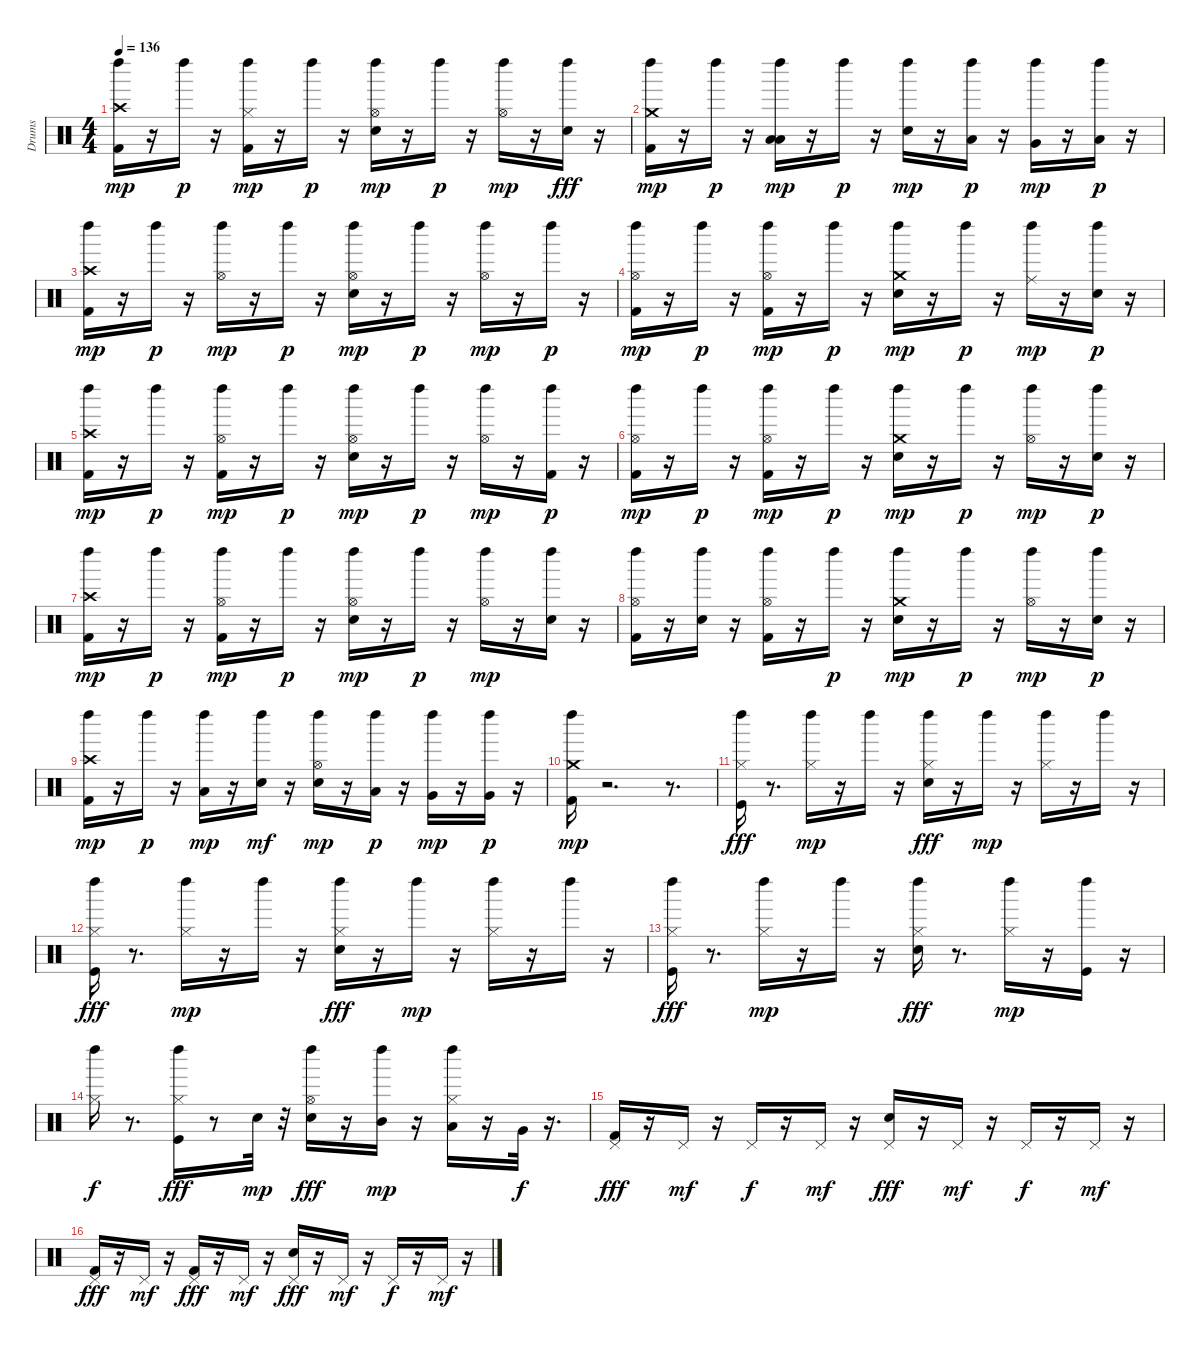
\track ("Drums" "Drums") {instrument percussion}
\staff {score}
\articulation defaults
\ts (4 4)
\tempo 136
\clef neutral
\ks c
("Kick (hit) 2" "Crash high (hit)" "Left Maraca (hit)").16{dy mp} r.16 "Left Maraca (hit)".16{dy p} r.16 ("Left Maraca (hit)" "Kick (hit) 2" "Hi-Hat (closed)").16{dy mp} r.16 "Left Maraca (hit)".16{dy p} r.16 ("Electric Snare (hit)" "Left Maraca (hit)" "Hi-Hat (open)").16{dy mp} r.16 "Left Maraca (hit)".16{dy p} r.16 ("Left Maraca (hit)" "Hi-Hat (open)").16{dy mp} r.16 ("Left Maraca (hit)" "Electric Snare (hit)").16{dy fff} r.16 |
("Kick (hit) 2" "Left Maraca (hit)" "Crash medium (hit)").16{dy mp} r.16 "Left Maraca (hit)".16{dy p} r.16 ("Left Maraca (hit)" "Low Tom (hit)" "Low Floor Tom (hit)").16{dy mp} r.16 "Left Maraca (hit)".16{dy p} r.16 ("Electric Snare (hit)" "Left Maraca (hit)").16{dy mp} r.16 ("Left Maraca (hit)" "Low Tom (hit)").16{dy p} r.16 ("Left Maraca (hit)" "Very Low Tom (hit)").16{dy mp} r.16 ("Left Maraca (hit)" "Low Floor Tom (hit)").16{dy p} r.16 |
("Kick (hit) 2" "Crash high (hit)" "Left Maraca (hit)").16{dy mp} r.16 "Left Maraca (hit)".16{dy p} r.16 ("Left Maraca (hit)" "Hi-Hat (open)").16{dy mp} r.16 "Left Maraca (hit)".16{dy p} r.16 ("Electric Snare (hit)" "Left Maraca (hit)" "Hi-Hat (open)").16{dy mp} r.16 "Left Maraca (hit)".16{dy p} r.16 ("Left Maraca (hit)" "Hi-Hat (open)").16{dy mp} r.16 "Left Maraca (hit)".16{dy p} r.16 |
("Kick (hit) 2" "Left Maraca (hit)" "Hi-Hat (open)").16{dy mp} r.16 "Left Maraca (hit)".16{dy p} r.16 ("Kick (hit) 2" "Left Maraca (hit)" "Hi-Hat (open)").16{dy mp} r.16 "Left Maraca (hit)".16{dy p} r.16 ("Electric Snare (hit)" "Crash medium (hit)" "Left Maraca (hit)").16{dy mp} r.16 "Left Maraca (hit)".16{dy p} r.16 ("Ride (middle)" "Left Maraca (hit)").16{dy mp} r.16 ("Electric Snare (hit)" "Left Maraca (hit)").16{dy p} r.16 |
("Kick (hit) 2" "Crash high (hit)" "Left Maraca (hit)").16{dy mp} r.16 "Left Maraca (hit)".16{dy p} r.16 ("Kick (hit) 2" "Left Maraca (hit)" "Hi-Hat (open)").16{dy mp} r.16 "Left Maraca (hit)".16{dy p} r.16 ("Electric Snare (hit)" "Left Maraca (hit)" "Hi-Hat (open)").16{dy mp} r.16 "Left Maraca (hit)".16{dy p} r.16 ("Left Maraca (hit)" "Hi-Hat (open)").16{dy mp} r.16 ("Kick (hit) 2" "Left Maraca (hit)").16{dy p} r.16 |
("Kick (hit) 2" "Left Maraca (hit)" "Hi-Hat (open)").16{dy mp} r.16 "Left Maraca (hit)".16{dy p} r.16 ("Kick (hit) 2" "Left Maraca (hit)" "Hi-Hat (open)").16{dy mp} r.16 "Left Maraca (hit)".16{dy p} r.16 ("Electric Snare (hit)" "Crash medium (hit)" "Left Maraca (hit)").16{dy mp} r.16 "Left Maraca (hit)".16{dy p} r.16 ("Left Maraca (hit)" "Hi-Hat (open)").16{dy mp} r.16 ("Electric Snare (hit)" "Left Maraca (hit)").16{dy p} r.16 |
("Kick (hit) 2" "Crash high (hit)" "Left Maraca (hit)").16{dy mp} r.16 "Left Maraca (hit)".16{dy p} r.16 ("Left Maraca (hit)" "Kick (hit) 2" "Hi-Hat (open)").16{dy mp} r.16 "Left Maraca (hit)".16{dy p} r.16 ("Electric Snare (hit)" "Left Maraca (hit)" "Hi-Hat (open)").16{dy mp} r.16 "Left Maraca (hit)".16{dy p} r.16 ("Left Maraca (hit)" "Hi-Hat (open)").16{dy mp} r.16 ("Left Maraca (hit)" "Electric Snare (hit)").16 r.16 |
("Kick (hit) 2" "Left Maraca (hit)" "Hi-Hat (open)").16 r.16 ("Left Maraca (hit)" "Electric Snare (hit)").16 r.16 ("Kick (hit) 2" "Left Maraca (hit)" "Hi-Hat (open)").16 r.16 "Left Maraca (hit)".16{dy p} r.16 ("Electric Snare (hit)" "Crash medium (hit)" "Left Maraca (hit)").16{dy mp} r.16 "Left Maraca (hit)".16{dy p} r.16 ("Left Maraca (hit)" "Hi-Hat (open)").16{dy mp} r.16 ("Electric Snare (hit)" "Left Maraca (hit)").16{dy p} r.16 |
("Kick (hit) 2" "Crash high (hit)" "Left Maraca (hit)").16{dy mp} r.16 "Left Maraca (hit)".16{dy p} r.16 ("Left Maraca (hit)" "Low Tom (hit)").16{dy mp} r.16 ("Left Maraca (hit)" "Electric Snare (hit)").16{dy mf} r.16 ("Electric Snare (hit)" "Left Maraca (hit)" "Hi-Hat (open)").16{dy mp} r.16 ("Left Maraca (hit)" "Low Tom (hit)").16{dy p} r.16 ("Left Maraca (hit)" "Very Low Tom (hit)").16{dy mp} r.16 ("Left Maraca (hit)" "Very Low Tom (hit)").16{dy p} r.16 |
("Kick (hit) 2" "Left Maraca (hit)" "Crash medium (hit)").16{dy mp} r.2{d} r.8{d} |
("Kick (hit)" "Hi-Hat (closed)" "Left Maraca (hit)").16{dy fff volume 14} r.8{d} ("Hi-Hat (closed)" "Left Maraca (hit)").16{dy mp} r.16 "Left Maraca (hit)".16 r.16 ("Snare (hit) 2" "Hi-Hat (closed)" "Left Maraca (hit)").16{dy fff} r.16 "Left Maraca (hit)".16{dy mp} r.16 ("Hi-Hat (closed)" "Left Maraca (hit)").16 r.16 "Left Maraca (hit)".16 r.16 |
("Kick (hit)" "Hi-Hat (closed)" "Left Maraca (hit)").16{dy fff} r.8{d} ("Hi-Hat (closed)" "Left Maraca (hit)").16{dy mp} r.16 "Left Maraca (hit)".16 r.16 ("Snare (hit) 2" "Hi-Hat (closed)" "Left Maraca (hit)").16{dy fff} r.16 "Left Maraca (hit)".16{dy mp} r.16 ("Hi-Hat (closed)" "Left Maraca (hit)").16 r.16 "Left Maraca (hit)".16 r.16 |
("Kick (hit)" "Hi-Hat (closed)" "Left Maraca (hit)").16{dy fff} r.8{d} ("Hi-Hat (closed)" "Left Maraca (hit)").16{dy mp} r.16 "Left Maraca (hit)".16 r.16 ("Snare (hit) 2" "Hi-Hat (closed)" "Left Maraca (hit)").16{dy fff} r.8{d} ("Hi-Hat (closed)" "Left Maraca (hit)").16{dy mp} r.16 ("Kick (hit)" "Left Maraca (hit)").16 r.16 |
("Hi-Hat (closed)" "Left Maraca (hit)").16{dy f} r.8{d} ("Hi-Hat (closed)" "Kick (hit)" "Left Maraca (hit)").16{dy fff} r.8 "Electric Snare (hit)".32{dy mp volume 15} r.32 ("Left Maraca (hit)" "Electric Snare (hit)" "Hi-Hat (open)").16{dy fff} r.16 ("Left Maraca (hit)" "Mid Tom (hit)").16{dy mp} r.16 ("Hi-Hat (closed)" "Left Maraca (hit)" "Low Tom (hit)").16 r.16 "Very Low Tom (hit)".32{dy f} r.16{d} |
("Kick (hit) 2" "Pedal Hi-Hat (hit)").16{dy fff} r.16 "Pedal Hi-Hat (hit)".16{dy mf} r.16 "Pedal Hi-Hat (hit)".16{dy f} r.16 "Pedal Hi-Hat (hit)".16{dy mf} r.16 ("Electric Snare (hit)" "Pedal Hi-Hat (hit)").16{dy fff} r.16 "Pedal Hi-Hat (hit)".16{dy mf} r.16 "Pedal Hi-Hat (hit)".16{dy f} r.16 "Pedal Hi-Hat (hit)".16{dy mf} r.16 |
("Kick (hit) 2" "Pedal Hi-Hat (hit)").16{dy fff} r.16 "Pedal Hi-Hat (hit)".16{dy mf} r.16 ("Pedal Hi-Hat (hit)" "Kick (hit) 2").16{dy fff} r.16 "Pedal Hi-Hat (hit)".16{dy mf} r.16 ("Electric Snare (hit)" "Pedal Hi-Hat (hit)").16{dy fff} r.16 "Pedal Hi-Hat (hit)".16{dy mf} r.16 "Pedal Hi-Hat (hit)".16{dy f} r.16 "Pedal Hi-Hat (hit)".16{dy mf} r.16
